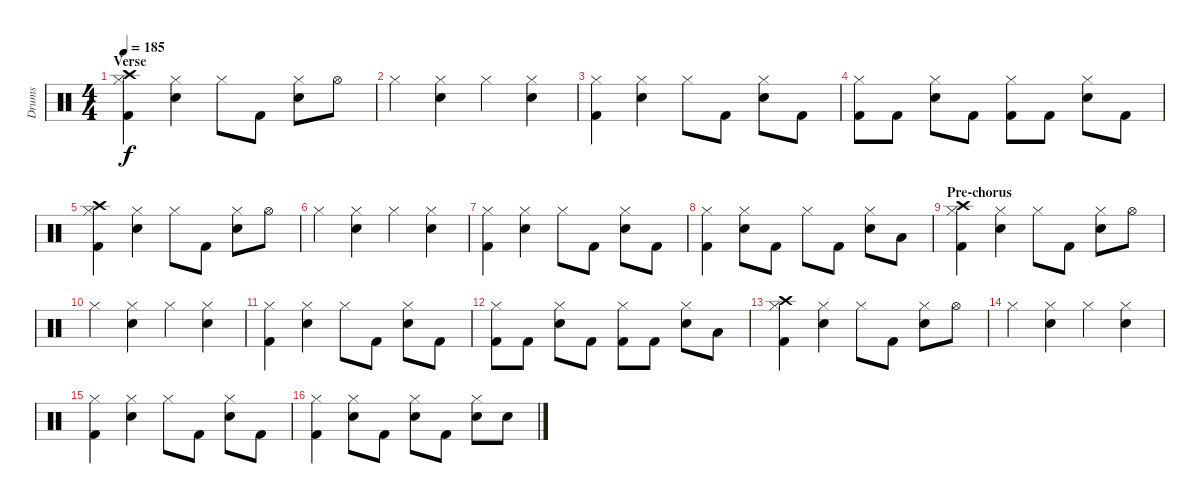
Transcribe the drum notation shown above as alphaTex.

\track ("Drums" "Drums") {instrument percussion}
\staff {score}
\articulation defaults
\ts (4 4)
\section ("" "Verse")
\tempo 185
\clef neutral
\ks c
("Hi-Hat (closed)" "Kick (hit) 2" "Crash high (hit)").4{dy f} ("Hi-Hat (closed)" "Electric Snare (hit)").4 "Hi-Hat (closed)".8 "Kick (hit) 2".8 ("Hi-Hat (closed)" "Electric Snare (hit)").8 "Hi-Hat (open)".8 |
"Hi-Hat (closed)".4 ("Hi-Hat (closed)" "Electric Snare (hit)").4 "Hi-Hat (closed)".4 ("Hi-Hat (closed)" "Electric Snare (hit)").4 |
("Hi-Hat (closed)" "Kick (hit) 2").4 ("Hi-Hat (closed)" "Electric Snare (hit)").4 "Hi-Hat (closed)".8 "Kick (hit) 2".8 ("Hi-Hat (closed)" "Electric Snare (hit)").8 "Kick (hit) 2".8 |
("Hi-Hat (closed)" "Kick (hit) 2").8 "Kick (hit) 2".8 ("Hi-Hat (closed)" "Electric Snare (hit)").8 "Kick (hit) 2".8 ("Hi-Hat (closed)" "Kick (hit) 2").8 "Kick (hit) 2".8 ("Hi-Hat (closed)" "Electric Snare (hit)").8 "Kick (hit) 2".8 |
("Hi-Hat (closed)" "Kick (hit) 2" "Crash high (hit)").4 ("Hi-Hat (closed)" "Electric Snare (hit)").4 "Hi-Hat (closed)".8 "Kick (hit) 2".8 ("Hi-Hat (closed)" "Electric Snare (hit)").8 "Hi-Hat (open)".8 |
"Hi-Hat (closed)".4 ("Hi-Hat (closed)" "Electric Snare (hit)").4 "Hi-Hat (closed)".4 ("Hi-Hat (closed)" "Electric Snare (hit)").4 |
("Hi-Hat (closed)" "Kick (hit) 2").4 ("Hi-Hat (closed)" "Electric Snare (hit)").4 "Hi-Hat (closed)".8 "Kick (hit) 2".8 ("Hi-Hat (closed)" "Electric Snare (hit)").8 "Kick (hit) 2".8 |
("Hi-Hat (closed)" "Kick (hit) 2").4 ("Hi-Hat (closed)" "Electric Snare (hit)").8 "Kick (hit) 2".8 "Hi-Hat (closed)".8 "Kick (hit) 2".8 ("Hi-Hat (closed)" "Electric Snare (hit)").8 "Low Tom (hit)".8 |
\section ("" "Pre-chorus")
("Hi-Hat (closed)" "Kick (hit) 2" "Crash high (hit)").4 ("Hi-Hat (closed)" "Electric Snare (hit)").4 "Hi-Hat (closed)".8 "Kick (hit) 2".8 ("Hi-Hat (closed)" "Electric Snare (hit)").8 "Hi-Hat (open)".8 |
"Hi-Hat (closed)".4 ("Hi-Hat (closed)" "Electric Snare (hit)").4 "Hi-Hat (closed)".4 ("Hi-Hat (closed)" "Electric Snare (hit)").4 |
("Hi-Hat (closed)" "Kick (hit) 2").4 ("Hi-Hat (closed)" "Electric Snare (hit)").4 "Hi-Hat (closed)".8 "Kick (hit) 2".8 ("Hi-Hat (closed)" "Electric Snare (hit)").8 "Kick (hit) 2".8 |
("Hi-Hat (closed)" "Kick (hit) 2").8 "Kick (hit) 2".8 ("Hi-Hat (closed)" "Electric Snare (hit)").8 "Kick (hit) 2".8 ("Hi-Hat (closed)" "Kick (hit) 2").8 "Kick (hit) 2".8 ("Hi-Hat (closed)" "Electric Snare (hit)").8 "Low Tom (hit)".8 |
("Hi-Hat (closed)" "Kick (hit) 2" "Crash high (hit)").4 ("Hi-Hat (closed)" "Electric Snare (hit)").4 "Hi-Hat (closed)".8 "Kick (hit) 2".8 ("Hi-Hat (closed)" "Electric Snare (hit)").8 "Hi-Hat (open)".8 |
"Hi-Hat (closed)".4 ("Hi-Hat (closed)" "Electric Snare (hit)").4 "Hi-Hat (closed)".4 ("Hi-Hat (closed)" "Electric Snare (hit)").4 |
("Hi-Hat (closed)" "Kick (hit) 2").4 ("Hi-Hat (closed)" "Electric Snare (hit)").4 "Hi-Hat (closed)".8 "Kick (hit) 2".8 ("Hi-Hat (closed)" "Electric Snare (hit)").8 "Kick (hit) 2".8 |
("Hi-Hat (closed)" "Kick (hit) 2").4 ("Hi-Hat (closed)" "Electric Snare (hit)").8 "Kick (hit) 2".8 ("Hi-Hat (closed)" "Electric Snare (hit)").8 "Kick (hit) 2".8 ("Hi-Hat (closed)" "Electric Snare (hit)").8 "Electric Snare (hit)".8
